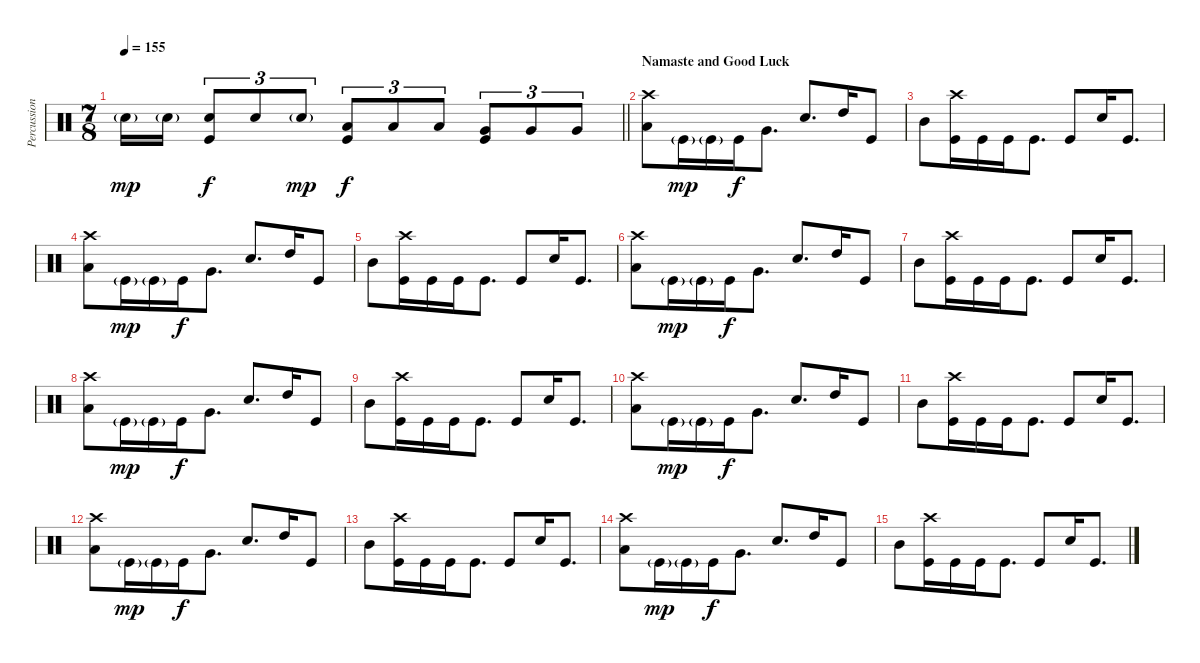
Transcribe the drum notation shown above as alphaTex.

\track ("Percussion" "Percussion") {instrument percussion}
\staff {score}
\articulation defaults
\ts (7 8)
\tempo 155
\clef neutral
\barLineRight lightlight
\ks c "Electric Snare (hit)"{g}.16{dy mp} "Electric Snare (hit)"{g}.16
("Electric Snare (hit)" "Kick (hit)").8{tu (3 2) dy f} "Electric Snare (hit)".8{tu (3 2)} "Electric Snare (hit)"{g}.8{tu (3 2) dy mp} ("Low Tom (hit)" "Kick (hit)").8{tu (3 2) dy f} "Low Tom (hit)".8{tu (3 2)} "Low Tom (hit)".8{tu (3 2)} ("Very Low Tom (hit)" "Kick (hit)").8{tu (3 2)} "Very Low Tom (hit)".8{tu (3 2)} "Very Low Tom (hit)".8{tu (3 2)} |
\section ("" "Namaste and Good Luck")
("Crash high (hit)" "Low Floor Tom (hit)").8 "Kick (hit)"{g}.16{dy mp} "Kick (hit)"{g}.16 "Kick (hit)".16{dy f} "Very Low Tom (hit)".8{d} "Electric Snare (hit)".8{d} "High Tom (hit)".16 "Kick (hit)".8 |
"Mid Tom (hit)".8 ("Crash high (hit)" "Kick (hit)").16 "Kick (hit)".16 "Kick (hit)".16 "Kick (hit)".8{d} "Kick (hit)".8 "Electric Snare (hit)".16 "Kick (hit)".8{d} |
("Crash high (hit)" "Low Floor Tom (hit)").8 "Kick (hit)"{g}.16{dy mp} "Kick (hit)"{g}.16 "Kick (hit)".16{dy f} "Very Low Tom (hit)".8{d} "Electric Snare (hit)".8{d} "High Tom (hit)".16 "Kick (hit)".8 |
"Mid Tom (hit)".8 ("Crash high (hit)" "Kick (hit)").16 "Kick (hit)".16 "Kick (hit)".16 "Kick (hit)".8{d} "Kick (hit)".8 "Electric Snare (hit)".16 "Kick (hit)".8{d} |
("Crash high (hit)" "Low Floor Tom (hit)").8 "Kick (hit)"{g}.16{dy mp} "Kick (hit)"{g}.16 "Kick (hit)".16{dy f} "Very Low Tom (hit)".8{d} "Electric Snare (hit)".8{d} "High Tom (hit)".16 "Kick (hit)".8 |
"Mid Tom (hit)".8 ("Crash high (hit)" "Kick (hit)").16 "Kick (hit)".16 "Kick (hit)".16 "Kick (hit)".8{d} "Kick (hit)".8 "Electric Snare (hit)".16 "Kick (hit)".8{d} |
("Crash high (hit)" "Low Floor Tom (hit)").8 "Kick (hit)"{g}.16{dy mp} "Kick (hit)"{g}.16 "Kick (hit)".16{dy f} "Very Low Tom (hit)".8{d} "Electric Snare (hit)".8{d} "High Tom (hit)".16 "Kick (hit)".8 |
"Mid Tom (hit)".8 ("Crash high (hit)" "Kick (hit)").16 "Kick (hit)".16 "Kick (hit)".16 "Kick (hit)".8{d} "Kick (hit)".8 "Electric Snare (hit)".16 "Kick (hit)".8{d} |
("Crash high (hit)" "Low Floor Tom (hit)").8 "Kick (hit)"{g}.16{dy mp} "Kick (hit)"{g}.16 "Kick (hit)".16{dy f} "Very Low Tom (hit)".8{d} "Electric Snare (hit)".8{d} "High Tom (hit)".16 "Kick (hit)".8 |
"Mid Tom (hit)".8 ("Crash high (hit)" "Kick (hit)").16 "Kick (hit)".16 "Kick (hit)".16 "Kick (hit)".8{d} "Kick (hit)".8 "Electric Snare (hit)".16 "Kick (hit)".8{d} |
("Crash high (hit)" "Low Floor Tom (hit)").8 "Kick (hit)"{g}.16{dy mp} "Kick (hit)"{g}.16 "Kick (hit)".16{dy f} "Very Low Tom (hit)".8{d} "Electric Snare (hit)".8{d} "High Tom (hit)".16 "Kick (hit)".8 |
"Mid Tom (hit)".8 ("Crash high (hit)" "Kick (hit)").16 "Kick (hit)".16 "Kick (hit)".16 "Kick (hit)".8{d} "Kick (hit)".8 "Electric Snare (hit)".16 "Kick (hit)".8{d} |
("Crash high (hit)" "Low Floor Tom (hit)").8 "Kick (hit)"{g}.16{dy mp} "Kick (hit)"{g}.16 "Kick (hit)".16{dy f} "Very Low Tom (hit)".8{d} "Electric Snare (hit)".8{d} "High Tom (hit)".16 "Kick (hit)".8 |
"Mid Tom (hit)".8 ("Crash high (hit)" "Kick (hit)").16 "Kick (hit)".16 "Kick (hit)".16 "Kick (hit)".8{d} "Kick (hit)".8 "Electric Snare (hit)".16 "Kick (hit)".8{d}
